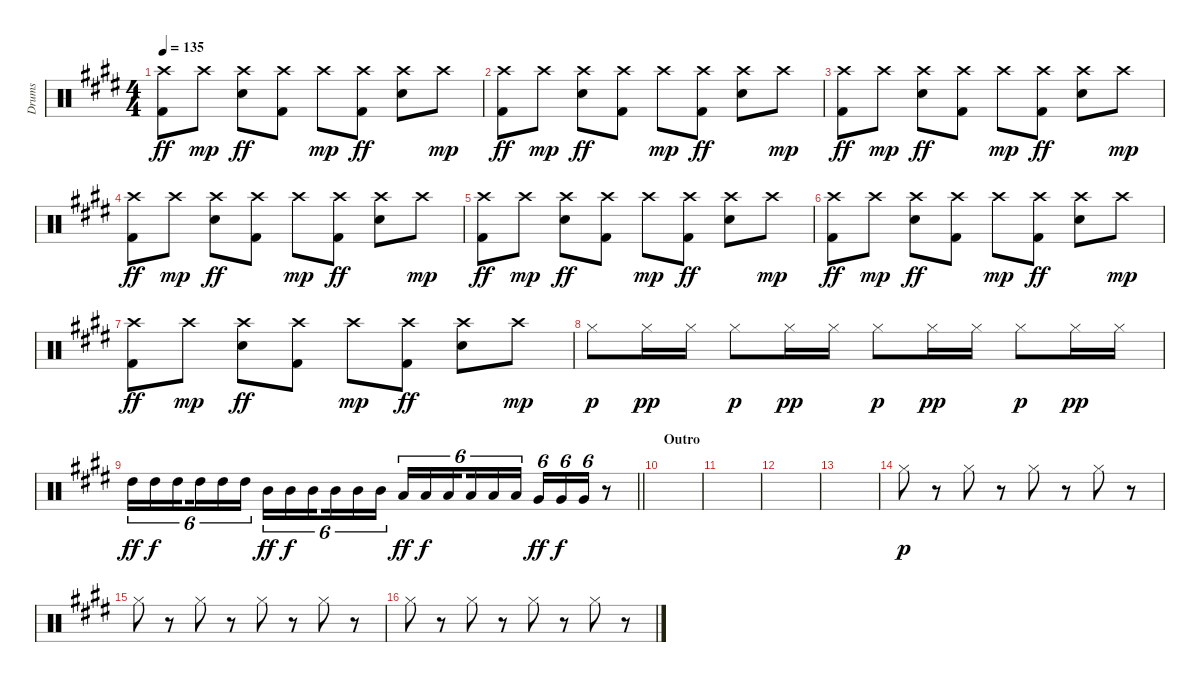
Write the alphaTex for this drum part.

\track ("Drums" "Drums") {instrument percussion}
\staff {score}
\articulation defaults
\ts (4 4)
\tempo 135
\clef neutral
\ks e
("Crash high (hit)" "Kick (hit) 2").8{dy ff} "Crash high (hit)".8{dy mp} ("Crash high (hit)" "Snare (hit) 2").8{dy ff} ("Crash high (hit)" "Kick (hit) 2").8 "Crash high (hit)".8{dy mp} ("Crash high (hit)" "Kick (hit) 2").8{dy ff} ("Crash high (hit)" "Snare (hit) 2").8 "Crash high (hit)".8{dy mp} |
("Crash high (hit)" "Kick (hit) 2").8{dy ff} "Crash high (hit)".8{dy mp} ("Crash high (hit)" "Snare (hit) 2").8{dy ff} ("Crash high (hit)" "Kick (hit) 2").8 "Crash high (hit)".8{dy mp} ("Crash high (hit)" "Kick (hit) 2").8{dy ff} ("Crash high (hit)" "Snare (hit) 2").8 "Crash high (hit)".8{dy mp} |
("Crash high (hit)" "Kick (hit) 2").8{dy ff} "Crash high (hit)".8{dy mp} ("Crash high (hit)" "Snare (hit) 2").8{dy ff} ("Crash high (hit)" "Kick (hit) 2").8 "Crash high (hit)".8{dy mp} ("Crash high (hit)" "Kick (hit) 2").8{dy ff} ("Crash high (hit)" "Snare (hit) 2").8 "Crash high (hit)".8{dy mp} |
("Crash high (hit)" "Kick (hit) 2").8{dy ff} "Crash high (hit)".8{dy mp} ("Crash high (hit)" "Snare (hit) 2").8{dy ff} ("Crash high (hit)" "Kick (hit) 2").8 "Crash high (hit)".8{dy mp} ("Crash high (hit)" "Kick (hit) 2").8{dy ff} ("Crash high (hit)" "Snare (hit) 2").8 "Crash high (hit)".8{dy mp} |
("Crash high (hit)" "Kick (hit) 2").8{dy ff} "Crash high (hit)".8{dy mp} ("Crash high (hit)" "Snare (hit) 2").8{dy ff} ("Crash high (hit)" "Kick (hit) 2").8 "Crash high (hit)".8{dy mp} ("Crash high (hit)" "Kick (hit) 2").8{dy ff} ("Crash high (hit)" "Snare (hit) 2").8 "Crash high (hit)".8{dy mp} |
("Crash high (hit)" "Kick (hit) 2").8{dy ff} "Crash high (hit)".8{dy mp} ("Crash high (hit)" "Snare (hit) 2").8{dy ff} ("Crash high (hit)" "Kick (hit) 2").8 "Crash high (hit)".8{dy mp} ("Crash high (hit)" "Kick (hit) 2").8{dy ff} ("Crash high (hit)" "Snare (hit) 2").8 "Crash high (hit)".8{dy mp} |
("Crash high (hit)" "Kick (hit) 2").8{dy ff} "Crash high (hit)".8{dy mp} ("Crash high (hit)" "Snare (hit) 2").8{dy ff} ("Crash high (hit)" "Kick (hit) 2").8 "Crash high (hit)".8{dy mp} ("Crash high (hit)" "Kick (hit) 2").8{dy ff} ("Crash high (hit)" "Snare (hit) 2").8 "Crash high (hit)".8{dy mp} |
"Hi-Hat (closed)".8{dy p} "Hi-Hat (closed)".16{dy pp} "Hi-Hat (closed)".16 "Hi-Hat (closed)".8{dy p} "Hi-Hat (closed)".16{dy pp} "Hi-Hat (closed)".16 "Hi-Hat (closed)".8{dy p} "Hi-Hat (closed)".16{dy pp} "Hi-Hat (closed)".16 "Hi-Hat (closed)".8{dy p} "Hi-Hat (closed)".16{dy pp} "Hi-Hat (closed)".16 |
\barLineRight lightlight "High Tom (hit)".16{tu (6 4) dy ff} "High Tom (hit)".16{tu (6 4) dy f} "High Tom (hit)".16{tu (6 4) beam splitsecondary} "High Tom (hit)".16{tu (6 4)} "High Tom (hit)".16{tu (6 4)} "High Tom (hit)".16{tu (6 4)} "Mid Tom (hit)".16{tu (6 4) dy ff} "Mid Tom (hit)".16{tu (6 4) dy f} "Mid Tom (hit)".16{tu (6 4) beam splitsecondary} "Mid Tom (hit)".16{tu (6 4)} "Mid Tom (hit)".16{tu (6 4)} "Mid Tom (hit)".16{tu (6 4)} "Low Tom (hit)".16{tu (6 4) dy ff} "Low Tom (hit)".16{tu (6 4) dy f} "Low Tom (hit)".16{tu (6 4) beam splitsecondary} "Low Tom (hit)".16{tu (6 4)} "Low Tom (hit)".16{tu (6 4)} "Low Tom (hit)".16{tu (6 4)} "Very Low Tom (hit)".16{tu (6 4) dy ff} "Very Low Tom (hit)".16{tu (6 4) dy f} "Very Low Tom (hit)".16{tu (6 4)}
r.8 |
\section ("" "Outro")
|
|
|
|
"Hi-Hat (closed)".8{dy p} r.8 "Hi-Hat (closed)".8 r.8 "Hi-Hat (closed)".8 r.8 "Hi-Hat (closed)".8 r.8 |
"Hi-Hat (closed)".8 r.8 "Hi-Hat (closed)".8 r.8 "Hi-Hat (closed)".8 r.8 "Hi-Hat (closed)".8 r.8 |
"Hi-Hat (closed)".8 r.8 "Hi-Hat (closed)".8 r.8 "Hi-Hat (closed)".8 r.8 "Hi-Hat (closed)".8 r.8
